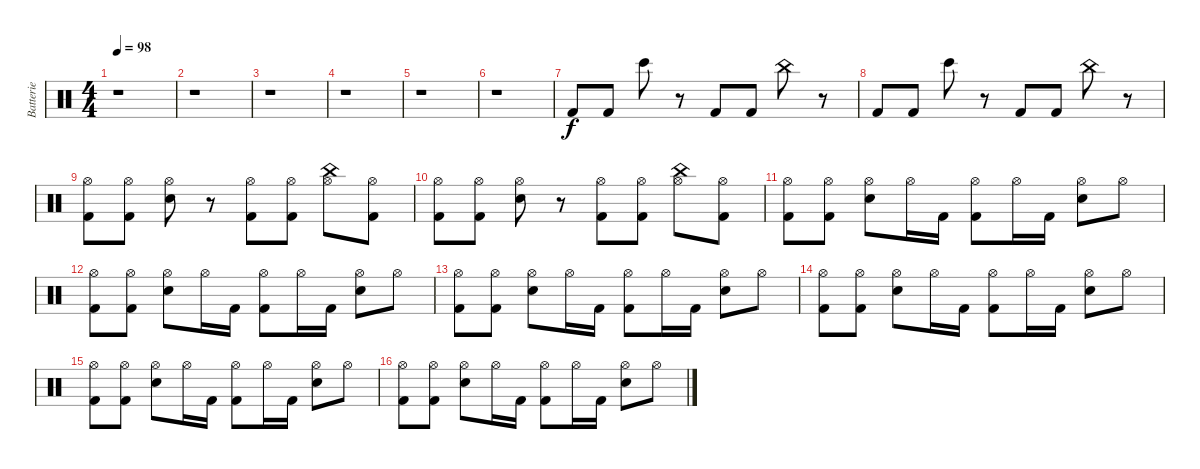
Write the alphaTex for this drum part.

\track ("Batterie" "Batterie") {instrument percussion}
\staff {score}
\articulation defaults
\ts (4 4)
\tempo 98
\clef neutral
\ks c
r.1{dy f} |
r.1 |
r.1 |
r.1 |
r.1 |
r.1 |
"Kick (hit) 2".8 "Kick (hit) 2".8 "Bongo High (hit)".8 r.8 "Kick (hit) 2".8 "Kick (hit) 2".8 "China (hit)".8 r.8 |
"Kick (hit) 2".8 "Kick (hit) 2".8 "Bongo High (hit)".8 r.8 "Kick (hit) 2".8 "Kick (hit) 2".8 "China (hit)".8 r.8 |
("Hi-Hat (open)" "Kick (hit) 2").8 ("Hi-Hat (open)" "Kick (hit) 2").8 ("Hi-Hat (open)" "Snare (hit) 2").8 r.8 ("Hi-Hat (open)" "Kick (hit) 2").8 ("Hi-Hat (open)" "Kick (hit) 2").8 ("Hi-Hat (open)" "China (hit)").8 ("Hi-Hat (open)" "Kick (hit) 2").8 |
("Hi-Hat (open)" "Kick (hit) 2").8 ("Hi-Hat (open)" "Kick (hit) 2").8 ("Hi-Hat (open)" "Snare (hit) 2").8 r.8 ("Hi-Hat (open)" "Kick (hit) 2").8 ("Hi-Hat (open)" "Kick (hit) 2").8 ("Hi-Hat (open)" "China (hit)").8 ("Hi-Hat (open)" "Kick (hit) 2").8 |
("Hi-Hat (open)" "Kick (hit) 2").8 ("Hi-Hat (open)" "Kick (hit) 2").8 ("Hi-Hat (open)" "Snare (hit) 2").8 "Hi-Hat (open)".16 "Kick (hit) 2".16 ("Hi-Hat (open)" "Kick (hit) 2").8 "Hi-Hat (open)".16 "Kick (hit) 2".16 ("Hi-Hat (open)" "Snare (hit) 2").8 "Hi-Hat (open)".8 |
("Hi-Hat (open)" "Kick (hit) 2").8 ("Hi-Hat (open)" "Kick (hit) 2").8 ("Hi-Hat (open)" "Snare (hit) 2").8 "Hi-Hat (open)".16 "Kick (hit) 2".16 ("Hi-Hat (open)" "Kick (hit) 2").8 "Hi-Hat (open)".16 "Kick (hit) 2".16 ("Hi-Hat (open)" "Snare (hit) 2").8 "Hi-Hat (open)".8 |
("Hi-Hat (open)" "Kick (hit) 2").8 ("Hi-Hat (open)" "Kick (hit) 2").8 ("Hi-Hat (open)" "Snare (hit) 2").8 "Hi-Hat (open)".16 "Kick (hit) 2".16 ("Hi-Hat (open)" "Kick (hit) 2").8 "Hi-Hat (open)".16 "Kick (hit) 2".16 ("Hi-Hat (open)" "Snare (hit) 2").8 "Hi-Hat (open)".8 |
("Hi-Hat (open)" "Kick (hit) 2").8 ("Hi-Hat (open)" "Kick (hit) 2").8 ("Hi-Hat (open)" "Snare (hit) 2").8 "Hi-Hat (open)".16 "Kick (hit) 2".16 ("Hi-Hat (open)" "Kick (hit) 2").8 "Hi-Hat (open)".16 "Kick (hit) 2".16 ("Hi-Hat (open)" "Snare (hit) 2").8 "Hi-Hat (open)".8 |
("Hi-Hat (open)" "Kick (hit) 2").8 ("Hi-Hat (open)" "Kick (hit) 2").8 ("Hi-Hat (open)" "Snare (hit) 2").8 "Hi-Hat (open)".16 "Kick (hit) 2".16 ("Hi-Hat (open)" "Kick (hit) 2").8 "Hi-Hat (open)".16 "Kick (hit) 2".16 ("Hi-Hat (open)" "Snare (hit) 2").8 "Hi-Hat (open)".8 |
("Hi-Hat (open)" "Kick (hit) 2").8 ("Hi-Hat (open)" "Kick (hit) 2").8 ("Hi-Hat (open)" "Snare (hit) 2").8 "Hi-Hat (open)".16 "Kick (hit) 2".16 ("Hi-Hat (open)" "Kick (hit) 2").8 "Hi-Hat (open)".16 "Kick (hit) 2".16 ("Hi-Hat (open)" "Snare (hit) 2").8 "Hi-Hat (open)".8
